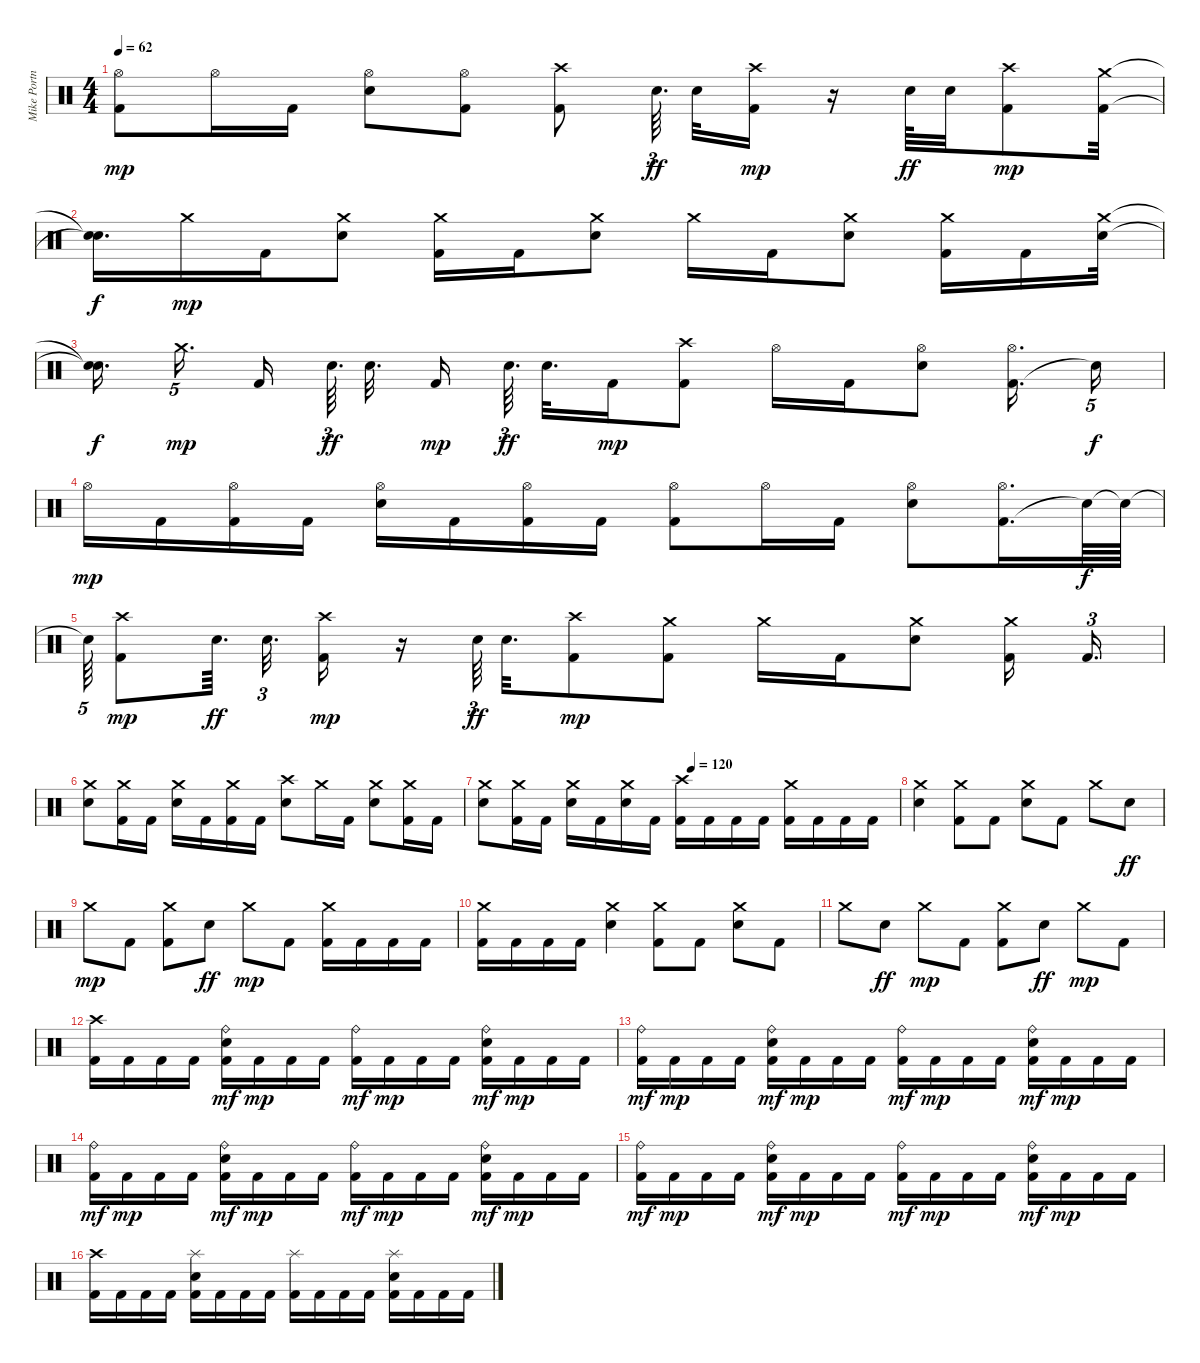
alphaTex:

\track ("Mike Portnoy" "Mike Portn") {instrument percussion}
\staff {score}
\articulation defaults
\ts (4 4)
\tempo 62
\clef neutral
\ks c
("Kick (hit) 2" "Hi-Hat (open)").8{dy mp} "Hi-Hat (open)".16 "Kick (hit) 2".16 ("Electric Snare (hit)" "Hi-Hat (open)").8 ("Kick (hit) 2" "Hi-Hat (open)").8 ("Kick (hit) 2" "Crash high (hit)").8 "Electric Snare (hit)".64{d tu (3 2) dy ff} "Electric Snare (hit)".32 ("Kick (hit) 2" "Crash high (hit)").16{dy mp} r.16 "Electric Snare (hit)".64{dy ff} "Electric Snare (hit)".32 ("Kick (hit) 2" "Crash high (hit)").8{dy mp} ("Kick (hit) 2" "Crash medium (hit)").32 |
("Snare (hit)"{t} "Snare (hit)"{t}).16{d dy f} "Crash medium (hit)".16{dy mp} "Kick (hit) 2".16 ("Electric Snare (hit)" "Crash medium (hit)").8 ("Kick (hit) 2" "Crash medium (hit)").16 "Kick (hit) 2".16 ("Electric Snare (hit)" "Crash medium (hit)").8 "Crash medium (hit)".16 "Kick (hit) 2".16 ("Electric Snare (hit)" "Crash medium (hit)").8 ("Kick (hit) 2" "Crash medium (hit)").16 "Kick (hit) 2".16 ("Electric Snare (hit)" "Crash medium (hit)").32 |
("Snare (hit)"{t} "Snare (hit)"{t}).16{d dy f} "Crash medium (hit)".16{d tu (5 4) dy mp} "Kick (hit) 2".16 "Electric Snare (hit)".64{d tu (3 2) dy ff} "Electric Snare (hit)".32{d} "Kick (hit) 2".16{dy mp} "Electric Snare (hit)".64{d tu (3 2) dy ff} "Electric Snare (hit)".32{d} "Kick (hit) 2".16{dy mp} ("Kick (hit) 2" "Crash high (hit)").8 "Hi-Hat (open)".16 "Kick (hit) 2".16 ("Electric Snare (hit)" "Hi-Hat (open)").8 ("Kick (hit) 2" "Hi-Hat (open)").16{d} "Snare (hit)"{t}.16{tu (5 4) dy f} |
"Hi-Hat (open)".16{dy mp} "Kick (hit) 2".16 ("Kick (hit) 2" "Hi-Hat (open)").16 "Kick (hit) 2".16 ("Electric Snare (hit)" "Hi-Hat (open)").16 "Kick (hit) 2".16 ("Kick (hit) 2" "Hi-Hat (open)").16 "Kick (hit) 2".16 ("Kick (hit) 2" "Hi-Hat (open)").8 "Hi-Hat (open)".16 "Kick (hit) 2".16 ("Electric Snare (hit)" "Hi-Hat (open)").8 ("Kick (hit) 2" "Hi-Hat (open)").16{d} "Snare (hit)"{t}.64{dy f} "Snare (hit)"{t}.64 |
"Snare (hit)"{t}.64{tu (5 4)} ("Kick (hit) 2" "Crash high (hit)").8{dy mp} "Electric Snare (hit)".64{d dy ff} "Electric Snare (hit)".32{d tu (3 2)} ("Kick (hit) 2" "Crash high (hit)").16{dy mp} r.16 "Electric Snare (hit)".64{tu (3 2) dy ff} "Electric Snare (hit)".32{d} ("Kick (hit) 2" "Crash high (hit)").8{dy mp} ("Kick (hit) 2" "Crash medium (hit)").8 "Crash medium (hit)".16 "Kick (hit) 2".16 ("Electric Snare (hit)" "Crash medium (hit)").8 ("Kick (hit) 2" "Crash medium (hit)").16 "Kick (hit) 2".16{d tu (3 2)} |
("Electric Snare (hit)" "Crash medium (hit)").8 ("Kick (hit) 2" "Crash medium (hit)").16 "Kick (hit) 2".16 ("Electric Snare (hit)" "Crash medium (hit)").16 "Kick (hit) 2".16 ("Kick (hit) 2" "Crash medium (hit)").16 "Kick (hit) 2".16 ("Electric Snare (hit)" "Crash high (hit)").8 "Crash medium (hit)".16 "Kick (hit) 2".16 ("Electric Snare (hit)" "Crash medium (hit)").8 ("Kick (hit) 2" "Crash medium (hit)").16 "Kick (hit) 2".16 |
\tempo (120 0.5)
("Electric Snare (hit)" "Crash medium (hit)").8 ("Kick (hit) 2" "Crash medium (hit)").16 "Kick (hit) 2".16 ("Electric Snare (hit)" "Crash medium (hit)").16 "Kick (hit) 2".16 ("Electric Snare (hit)" "Crash medium (hit)").16 "Kick (hit) 2".16 ("Kick (hit) 2" "Crash high (hit)").16 "Kick (hit) 2".16 "Kick (hit) 2".16 "Kick (hit) 2".16 ("Kick (hit) 2" "Crash medium (hit)").16 "Kick (hit) 2".16 "Kick (hit) 2".16 "Kick (hit) 2".16 |
("Electric Snare (hit)" "Crash medium (hit)").4 ("Kick (hit) 2" "Crash medium (hit)").8 "Kick (hit) 2".8 ("Electric Snare (hit)" "Crash medium (hit)").8 "Kick (hit) 2".8 "Crash medium (hit)".8 "Electric Snare (hit)".8{dy ff} |
"Crash medium (hit)".8{dy mp} "Kick (hit) 2".8 ("Kick (hit) 2" "Crash medium (hit)").8 "Electric Snare (hit)".8{dy ff} "Crash medium (hit)".8{dy mp} "Kick (hit) 2".8 ("Kick (hit) 2" "Crash medium (hit)").16 "Kick (hit) 2".16 "Kick (hit) 2".16 "Kick (hit) 2".16 |
("Kick (hit) 2" "Crash medium (hit)").16 "Kick (hit) 2".16 "Kick (hit) 2".16 "Kick (hit) 2".16 ("Electric Snare (hit)" "Crash medium (hit)").4 ("Kick (hit) 2" "Crash medium (hit)").8 "Kick (hit) 2".8 ("Electric Snare (hit)" "Crash medium (hit)").8 "Kick (hit) 2".8 |
"Crash medium (hit)".8 "Electric Snare (hit)".8{dy ff} "Crash medium (hit)".8{dy mp} "Kick (hit) 2".8 ("Kick (hit) 2" "Crash medium (hit)").8 "Electric Snare (hit)".8{dy ff} "Crash medium (hit)".8{dy mp} "Kick (hit) 2".8 |
("Kick (hit) 2" "Crash high (hit)").16 "Kick (hit) 2".16 "Kick (hit) 2".16 "Kick (hit) 2".16 ("Kick (hit) 2" "Electric Snare (hit)" "Ride (bell)").16{dy mf} "Kick (hit) 2".16{dy mp} "Kick (hit) 2".16 "Kick (hit) 2".16 ("Kick (hit) 2" "Ride (bell)").16{dy mf} "Kick (hit) 2".16{dy mp} "Kick (hit) 2".16 "Kick (hit) 2".16 ("Kick (hit) 2" "Electric Snare (hit)" "Ride (bell)").16{dy mf} "Kick (hit) 2".16{dy mp} "Kick (hit) 2".16 "Kick (hit) 2".16 |
("Kick (hit) 2" "Ride (bell)").16{dy mf} "Kick (hit) 2".16{dy mp} "Kick (hit) 2".16 "Kick (hit) 2".16 ("Kick (hit) 2" "Electric Snare (hit)" "Ride (bell)").16{dy mf} "Kick (hit) 2".16{dy mp} "Kick (hit) 2".16 "Kick (hit) 2".16 ("Kick (hit) 2" "Ride (bell)").16{dy mf} "Kick (hit) 2".16{dy mp} "Kick (hit) 2".16 "Kick (hit) 2".16 ("Kick (hit) 2" "Electric Snare (hit)" "Ride (bell)").16{dy mf} "Kick (hit) 2".16{dy mp} "Kick (hit) 2".16 "Kick (hit) 2".16 |
("Kick (hit) 2" "Ride (bell)").16{dy mf} "Kick (hit) 2".16{dy mp} "Kick (hit) 2".16 "Kick (hit) 2".16 ("Kick (hit) 2" "Electric Snare (hit)" "Ride (bell)").16{dy mf} "Kick (hit) 2".16{dy mp} "Kick (hit) 2".16 "Kick (hit) 2".16 ("Kick (hit) 2" "Ride (bell)").16{dy mf} "Kick (hit) 2".16{dy mp} "Kick (hit) 2".16 "Kick (hit) 2".16 ("Kick (hit) 2" "Electric Snare (hit)" "Ride (bell)").16{dy mf} "Kick (hit) 2".16{dy mp} "Kick (hit) 2".16 "Kick (hit) 2".16 |
("Kick (hit) 2" "Ride (bell)").16{dy mf} "Kick (hit) 2".16{dy mp} "Kick (hit) 2".16 "Kick (hit) 2".16 ("Kick (hit) 2" "Electric Snare (hit)" "Ride (bell)").16{dy mf} "Kick (hit) 2".16{dy mp} "Kick (hit) 2".16 "Kick (hit) 2".16 ("Kick (hit) 2" "Ride (bell)").16{dy mf} "Kick (hit) 2".16{dy mp} "Kick (hit) 2".16 "Kick (hit) 2".16 ("Kick (hit) 2" "Electric Snare (hit)" "Ride (bell)").16{dy mf} "Kick (hit) 2".16{dy mp} "Kick (hit) 2".16 "Kick (hit) 2".16 |
("Kick (hit) 2" "Crash high (hit)").16 "Kick (hit) 2".16 "Kick (hit) 2".16 "Kick (hit) 2".16 ("Kick (hit) 2" "Electric Snare (hit)" "Splash (hit)").16 "Kick (hit) 2".16 "Kick (hit) 2".16 "Kick (hit) 2".16 ("Kick (hit) 2" "Splash (hit)").16 "Kick (hit) 2".16 "Kick (hit) 2".16 "Kick (hit) 2".16 ("Kick (hit) 2" "Electric Snare (hit)" "Splash (hit)").16 "Kick (hit) 2".16 "Kick (hit) 2".16 "Kick (hit) 2".16
